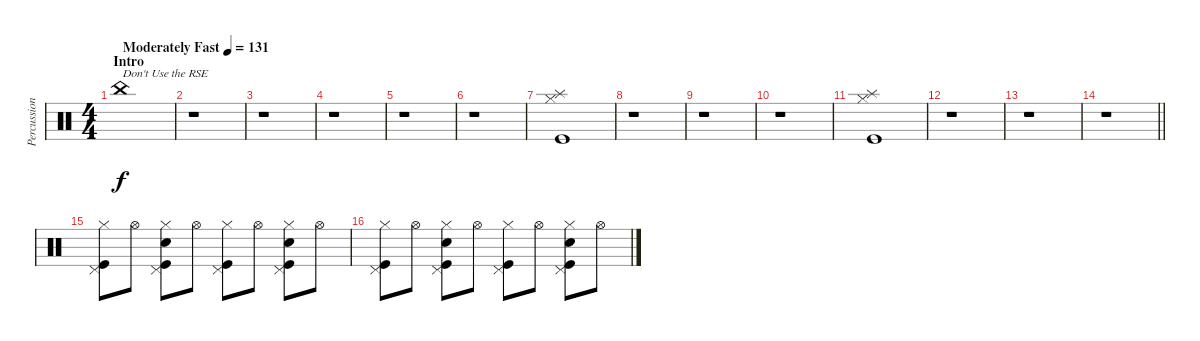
\track ("Percussion II" "Percussion") {instrument percussion}
\staff {score}
\articulation defaults
\ts (4 4)
\section ("" "Intro")
\tempo (131 "Moderately Fast")
\clef neutral
\ks c "China (hit)".1{txt "Don't Use the RSE" dy f}
|
r.1 |
r.1 |
r.1 |
r.1 |
r.1 |
("Splash (hit)" "Hi-Hat (closed)" "Kick (hit)").1 |
r.1 |
r.1 |
r.1 |
("Splash (hit)" "Hi-Hat (closed)" "Kick (hit)").1 |
r.1 |
r.1 |
\barLineRight lightlight
r.1 |
\section ("" "")
("Pedal Hi-Hat (hit)" "Hi-Hat (closed)" "Kick (hit)").8 "Hi-Hat (open)".8 ("Pedal Hi-Hat (hit)" "Hand Clap (hit)" "Hi-Hat (closed)" "Kick (hit)").8 "Hi-Hat (open)".8 ("Pedal Hi-Hat (hit)" "Hi-Hat (closed)" "Kick (hit)").8 "Hi-Hat (open)".8 ("Pedal Hi-Hat (hit)" "Hand Clap (hit)" "Hi-Hat (closed)" "Kick (hit)").8 "Hi-Hat (open)".8 |
("Pedal Hi-Hat (hit)" "Hi-Hat (closed)" "Kick (hit)").8 "Hi-Hat (open)".8 ("Pedal Hi-Hat (hit)" "Hand Clap (hit)" "Hi-Hat (closed)" "Kick (hit)").8 "Hi-Hat (open)".8 ("Pedal Hi-Hat (hit)" "Hi-Hat (closed)" "Kick (hit)").8 "Hi-Hat (open)".8 ("Pedal Hi-Hat (hit)" "Hand Clap (hit)" "Hi-Hat (closed)" "Kick (hit)").8 "Hi-Hat (open)".8
